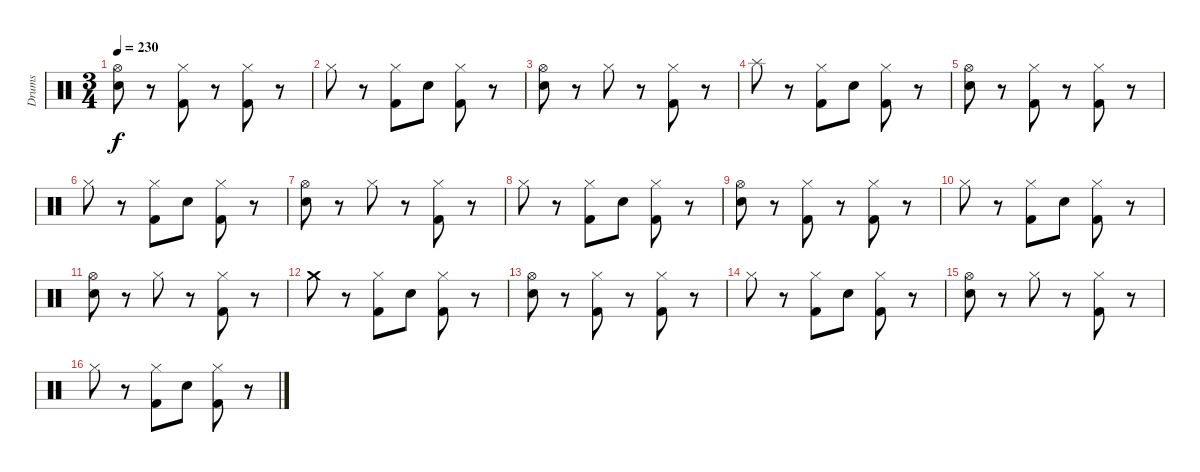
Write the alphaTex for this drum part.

\track ("Drums" "Drums") {instrument percussion}
\staff {score}
\articulation defaults
\ts (3 4)
\tempo 230
\clef neutral
\ks c
("Hi-Hat (open)" "Electric Snare (hit)").8{dy f} r.8 ("Hi-Hat (closed)" "Kick (hit) 2").8 r.8 ("Hi-Hat (closed)" "Kick (hit) 2").8 r.8 |
"Hi-Hat (closed)".8 r.8 ("Hi-Hat (closed)" "Kick (hit) 2").8 "Electric Snare (hit)".8 ("Hi-Hat (closed)" "Kick (hit) 2").8 r.8 |
("Hi-Hat (open)" "Electric Snare (hit)").8 r.8 "Hi-Hat (closed)".8 r.8 ("Hi-Hat (closed)" "Kick (hit) 2").8 r.8 |
"Splash (hit)".8 r.8 ("Hi-Hat (closed)" "Kick (hit) 2").8 "Electric Snare (hit)".8 ("Hi-Hat (closed)" "Kick (hit) 2").8 r.8 |
("Hi-Hat (open)" "Electric Snare (hit)").8 r.8 ("Hi-Hat (closed)" "Kick (hit) 2").8 r.8 ("Hi-Hat (closed)" "Kick (hit) 2").8 r.8 |
"Hi-Hat (closed)".8 r.8 ("Hi-Hat (closed)" "Kick (hit) 2").8 "Electric Snare (hit)".8 ("Hi-Hat (closed)" "Kick (hit) 2").8 r.8 |
("Hi-Hat (open)" "Electric Snare (hit)").8 r.8 "Hi-Hat (closed)".8 r.8 ("Hi-Hat (closed)" "Kick (hit) 2").8 r.8 |
"Hi-Hat (closed)".8 r.8 ("Hi-Hat (closed)" "Kick (hit) 2").8 "Electric Snare (hit)".8 ("Hi-Hat (closed)" "Kick (hit) 2").8 r.8 |
("Hi-Hat (open)" "Electric Snare (hit)").8 r.8 ("Hi-Hat (closed)" "Kick (hit) 2").8 r.8 ("Hi-Hat (closed)" "Kick (hit) 2").8 r.8 |
"Hi-Hat (closed)".8 r.8 ("Hi-Hat (closed)" "Kick (hit) 2").8 "Electric Snare (hit)".8 ("Hi-Hat (closed)" "Kick (hit) 2").8 r.8 |
("Hi-Hat (open)" "Electric Snare (hit)").8 r.8 "Hi-Hat (closed)".8 r.8 ("Hi-Hat (closed)" "Kick (hit) 2").8 r.8 |
"Crash medium (hit)".8 r.8 ("Hi-Hat (closed)" "Kick (hit) 2").8 "Electric Snare (hit)".8 ("Hi-Hat (closed)" "Kick (hit) 2").8 r.8 |
("Hi-Hat (open)" "Electric Snare (hit)").8 r.8 ("Hi-Hat (closed)" "Kick (hit) 2").8 r.8 ("Hi-Hat (closed)" "Kick (hit) 2").8 r.8 |
"Hi-Hat (closed)".8 r.8 ("Hi-Hat (closed)" "Kick (hit) 2").8 "Electric Snare (hit)".8 ("Hi-Hat (closed)" "Kick (hit) 2").8 r.8 |
("Hi-Hat (open)" "Electric Snare (hit)").8 r.8 "Hi-Hat (closed)".8 r.8 ("Hi-Hat (closed)" "Kick (hit) 2").8 r.8 |
"Hi-Hat (closed)".8 r.8 ("Hi-Hat (closed)" "Kick (hit) 2").8 "Electric Snare (hit)".8 ("Hi-Hat (closed)" "Kick (hit) 2").8 r.8
